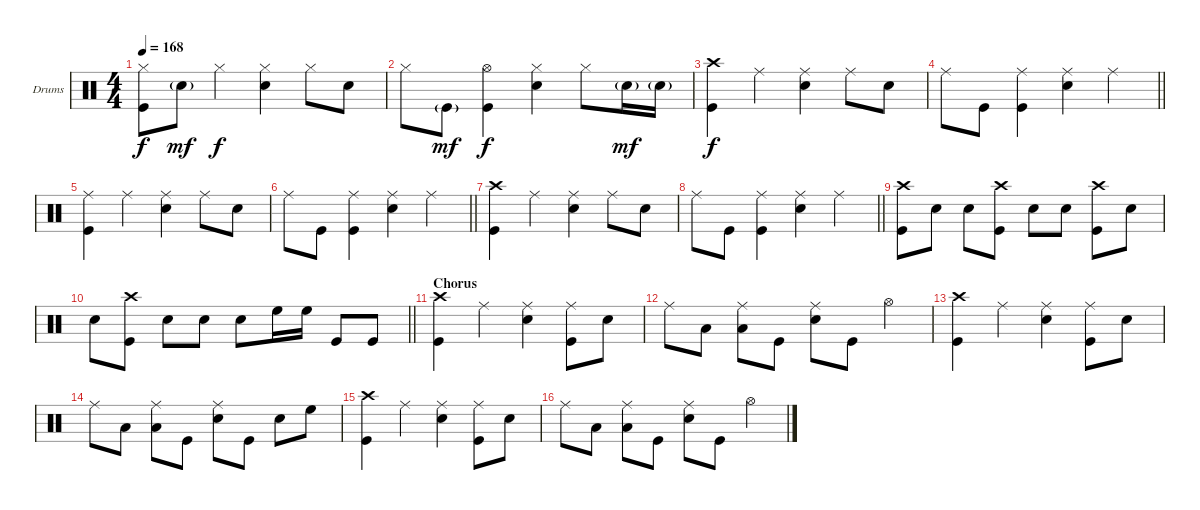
\bracketExtendMode groupsimilarinstruments
\firstSystemTrackNameOrientation horizontal
\otherSystemsTrackNameOrientation horizontal
\track ("Drumkit" "Drums") {solo instrument percussion}
\staff {score}
\articulation defaults
\ts (4 4)
\tempo 168
\clef neutral
\ks c
("Hi-Hat (closed)" "Kick (hit)").8{dy f} "Snare (hit) 2"{g}.8{dy mf} "Hi-Hat (closed)".4{dy f} ("Hi-Hat (closed)" "Snare (hit) 2").4 "Hi-Hat (closed)".8 "Snare (hit) 2".8 |
"Hi-Hat (closed)".8 "Kick (hit)"{g}.8{dy mf} ("Hi-Hat (open)" "Kick (hit)").4{dy f} ("Hi-Hat (closed)" "Snare (hit) 2").4 "Hi-Hat (closed)".8 "Snare (hit) 2"{g}.16{dy mf} "Snare (hit) 2"{g}.16 |
("Crash high (hit)" "Kick (hit)").4{dy f} "Ride (middle)".4 ("Ride (middle)" "Snare (hit) 2").4 "Ride (middle)".8 "Snare (hit) 2".8 |
\barLineRight lightlight "Ride (middle)".8 "Kick (hit)".8
("Ride (middle)" "Kick (hit)").4 ("Ride (middle)" "Snare (hit) 2").4 "Ride (middle)".4 |
("Ride (middle)" "Kick (hit)").4 "Ride (middle)".4 ("Ride (middle)" "Snare (hit) 2").4 "Ride (middle)".8 "Snare (hit) 2".8 |
\barLineRight lightlight "Ride (middle)".8 "Kick (hit)".8
("Ride (middle)" "Kick (hit)").4 ("Ride (middle)" "Snare (hit) 2").4 "Ride (middle)".4 |
("Crash high (hit)" "Kick (hit)").4 "Ride (middle)".4 ("Ride (middle)" "Snare (hit) 2").4 "Ride (middle)".8 "Snare (hit) 2".8 |
\barLineRight lightlight "Ride (middle)".8 "Kick (hit)".8
("Ride (middle)" "Kick (hit)").4 ("Ride (middle)" "Snare (hit) 2").4 "Ride (middle)".4 |
("Crash high (hit)" "Kick (hit)").8 "Snare (hit) 2".8 "Snare (hit) 2".8 ("Crash high (hit)" "Kick (hit)").8 "Snare (hit) 2".8 "Snare (hit) 2".8 ("Crash high (hit)" "Kick (hit)").8 "Snare (hit) 2".8 |
\barLineRight lightlight "Snare (hit) 2".8
("Crash high (hit)" "Kick (hit)").8 "Snare (hit) 2".8 "Snare (hit) 2".8 "Snare (hit) 2".8 "High Floor Tom (hit)".16 "High Floor Tom (hit)".16 "Kick (hit)".8 "Kick (hit)".8 |
\section ("" "Chorus")
("Crash high (hit)" "Kick (hit)").4 "Ride (middle)".4 ("Ride (middle)" "Snare (hit) 2").4 ("Ride (middle)" "Kick (hit)").8 "Snare (hit) 2".8 |
"Ride (middle)".8 "Low Tom (hit)".8 ("Ride (middle)" "Low Tom (hit)").8 "Kick (hit)".8 ("Ride (middle)" "Snare (hit) 2").8 "Kick (hit)".8 "Hi-Hat (open)".4 |
("Crash high (hit)" "Kick (hit)").4 "Ride (middle)".4 ("Ride (middle)" "Snare (hit) 2").4 ("Ride (middle)" "Kick (hit)").8 "Snare (hit) 2".8 |
"Ride (middle)".8 "Low Tom (hit)".8 ("Ride (middle)" "Low Tom (hit)").8 "Kick (hit)".8 ("Ride (middle)" "Snare (hit) 2").8 "Kick (hit)".8 "Snare (hit) 2".8 "High Floor Tom (hit)".8 |
("Crash high (hit)" "Kick (hit)").4 "Ride (middle)".4 ("Ride (middle)" "Snare (hit) 2").4 ("Ride (middle)" "Kick (hit)").8 "Snare (hit) 2".8 |
"Ride (middle)".8 "Low Tom (hit)".8 ("Ride (middle)" "Low Tom (hit)").8 "Kick (hit)".8 ("Ride (middle)" "Snare (hit) 2").8 "Kick (hit)".8 "Hi-Hat (open)".4
